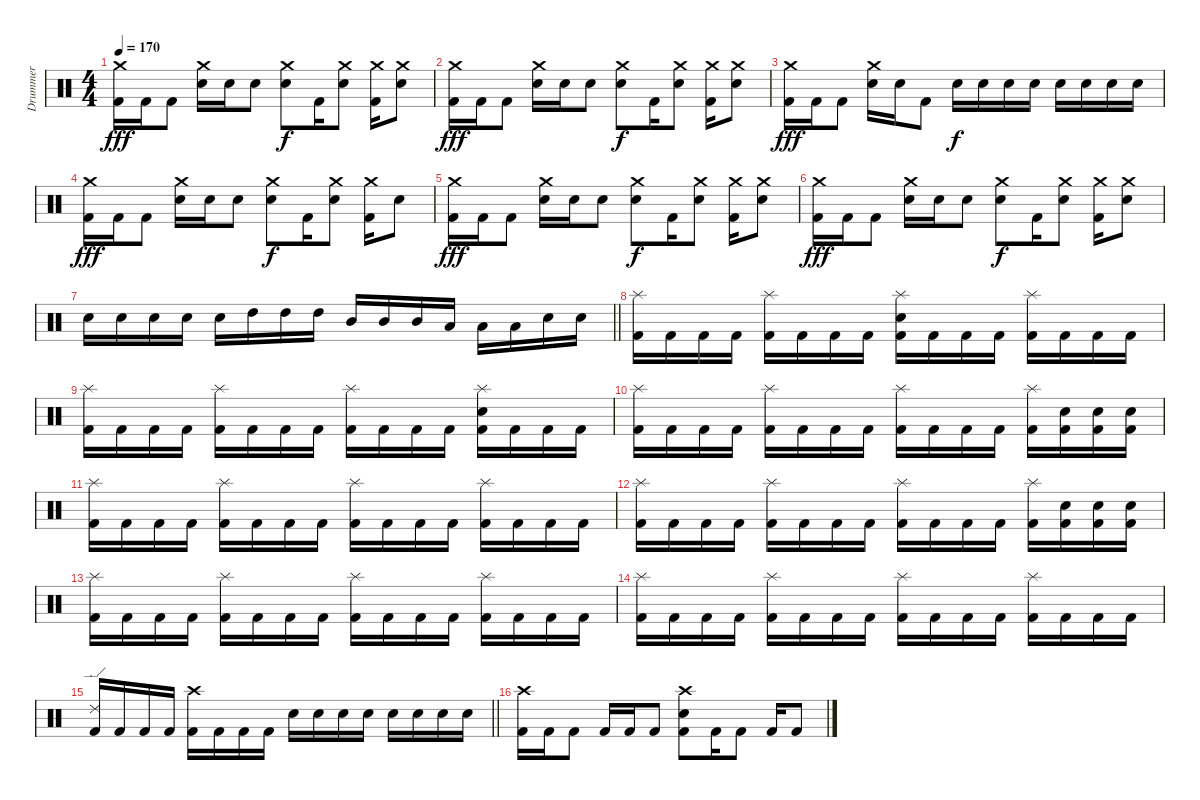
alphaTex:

\track ("Drummer" "Drummer") {instrument percussion}
\staff {score}
\articulation defaults
\ts (4 4)
\tempo 170
\clef neutral
\ks c
("Crash medium (hit)" "Kick (hit) 2").16{dy fff} "Kick (hit) 2".16 "Kick (hit) 2".8 ("Crash medium (hit)" "Electric Snare (hit)").16 "Electric Snare (hit)".16 "Electric Snare (hit)".8 ("Crash medium (hit)" "Electric Snare (hit)").8{dy f} "Kick (hit) 2".16 ("Crash medium (hit)" "Electric Snare (hit)").8 ("Crash medium (hit)" "Kick (hit) 2").16 ("Crash medium (hit)" "Electric Snare (hit)").8 |
("Crash medium (hit)" "Kick (hit) 2").16{dy fff} "Kick (hit) 2".16 "Kick (hit) 2".8 ("Crash medium (hit)" "Electric Snare (hit)").16 "Electric Snare (hit)".16 "Electric Snare (hit)".8 ("Crash medium (hit)" "Electric Snare (hit)").8{dy f} "Kick (hit) 2".16 ("Crash medium (hit)" "Electric Snare (hit)").8 ("Crash medium (hit)" "Kick (hit) 2").16 ("Crash medium (hit)" "Electric Snare (hit)").8 |
("Crash medium (hit)" "Kick (hit) 2").16{dy fff} "Kick (hit) 2".16 "Kick (hit) 2".8 ("Crash medium (hit)" "Electric Snare (hit)").16 "Electric Snare (hit)".16 "Kick (hit) 2".8 "Electric Snare (hit)".16{dy f} "Electric Snare (hit)".16 "Electric Snare (hit)".16 "Electric Snare (hit)".16 "Electric Snare (hit)".16 "Electric Snare (hit)".16 "Electric Snare (hit)".16 "Electric Snare (hit)".16 |
("Crash medium (hit)" "Kick (hit) 2").16{dy fff} "Kick (hit) 2".16 "Kick (hit) 2".8 ("Crash medium (hit)" "Electric Snare (hit)").16 "Electric Snare (hit)".16 "Electric Snare (hit)".8 ("Crash medium (hit)" "Electric Snare (hit)").8{dy f} "Kick (hit) 2".16 ("Crash medium (hit)" "Electric Snare (hit)").8 ("Crash medium (hit)" "Kick (hit) 2").16 "Electric Snare (hit)".8 |
("Crash medium (hit)" "Kick (hit) 2").16{dy fff} "Kick (hit) 2".16 "Kick (hit) 2".8 ("Crash medium (hit)" "Electric Snare (hit)").16 "Electric Snare (hit)".16 "Electric Snare (hit)".8 ("Crash medium (hit)" "Electric Snare (hit)").8{dy f} "Kick (hit) 2".16 ("Crash medium (hit)" "Electric Snare (hit)").8 ("Crash medium (hit)" "Kick (hit) 2").16 ("Crash medium (hit)" "Electric Snare (hit)").8 |
("Crash medium (hit)" "Kick (hit) 2").16{dy fff} "Kick (hit) 2".16 "Kick (hit) 2".8 ("Crash medium (hit)" "Electric Snare (hit)").16 "Electric Snare (hit)".16 "Electric Snare (hit)".8 ("Crash medium (hit)" "Electric Snare (hit)").8{dy f} "Kick (hit) 2".16 ("Crash medium (hit)" "Electric Snare (hit)").8 ("Crash medium (hit)" "Kick (hit) 2").16 ("Crash medium (hit)" "Electric Snare (hit)").8 |
\barLineRight lightlight "Electric Snare (hit)".16 "Electric Snare (hit)".16 "Electric Snare (hit)".16 "Electric Snare (hit)".16 "Electric Snare (hit)".16 "High Tom (hit)".16 "High Tom (hit)".16 "High Tom (hit)".16 "Mid Tom (hit)".16 "Mid Tom (hit)".16 "Mid Tom (hit)".16 "Low Tom (hit)".16 "Low Tom (hit)".16 "Low Tom (hit)".16 "Electric Snare (hit)".16 "Electric Snare (hit)".16
|
("Splash (hit)" "Kick (hit) 2").16 "Kick (hit) 2".16 "Kick (hit) 2".16 "Kick (hit) 2".16 ("Splash (hit)" "Kick (hit) 2").16 "Kick (hit) 2".16 "Kick (hit) 2".16 "Kick (hit) 2".16 ("Splash (hit)" "Electric Snare (hit)" "Kick (hit) 2").16 "Kick (hit) 2".16 "Kick (hit) 2".16 "Kick (hit) 2".16 ("Splash (hit)" "Kick (hit) 2").16 "Kick (hit) 2".16 "Kick (hit) 2".16 "Kick (hit) 2".16 |
("Splash (hit)" "Kick (hit) 2").16 "Kick (hit) 2".16 "Kick (hit) 2".16 "Kick (hit) 2".16 ("Splash (hit)" "Kick (hit) 2").16 "Kick (hit) 2".16 "Kick (hit) 2".16 "Kick (hit) 2".16 ("Splash (hit)" "Kick (hit) 2").16 "Kick (hit) 2".16 "Kick (hit) 2".16 "Kick (hit) 2".16 ("Splash (hit)" "Electric Snare (hit)" "Kick (hit) 2").16 "Kick (hit) 2".16 "Kick (hit) 2".16 "Kick (hit) 2".16 |
("Splash (hit)" "Kick (hit) 2").16 "Kick (hit) 2".16 "Kick (hit) 2".16 "Kick (hit) 2".16 ("Splash (hit)" "Kick (hit) 2").16 "Kick (hit) 2".16 "Kick (hit) 2".16 "Kick (hit) 2".16 ("Splash (hit)" "Kick (hit) 2").16 "Kick (hit) 2".16 "Kick (hit) 2".16 "Kick (hit) 2".16 ("Splash (hit)" "Kick (hit) 2").16 ("Electric Snare (hit)" "Kick (hit) 2").16 ("Electric Snare (hit)" "Kick (hit) 2").16 ("Electric Snare (hit)" "Kick (hit) 2").16 |
("Splash (hit)" "Kick (hit) 2").16 "Kick (hit) 2".16 "Kick (hit) 2".16 "Kick (hit) 2".16 ("Splash (hit)" "Kick (hit) 2").16 "Kick (hit) 2".16 "Kick (hit) 2".16 "Kick (hit) 2".16 ("Splash (hit)" "Kick (hit) 2").16 "Kick (hit) 2".16 "Kick (hit) 2".16 "Kick (hit) 2".16 ("Splash (hit)" "Kick (hit) 2").16 "Kick (hit) 2".16 "Kick (hit) 2".16 "Kick (hit) 2".16 |
("Splash (hit)" "Kick (hit) 2").16 "Kick (hit) 2".16 "Kick (hit) 2".16 "Kick (hit) 2".16 ("Splash (hit)" "Kick (hit) 2").16 "Kick (hit) 2".16 "Kick (hit) 2".16 "Kick (hit) 2".16 ("Splash (hit)" "Kick (hit) 2").16 "Kick (hit) 2".16 "Kick (hit) 2".16 "Kick (hit) 2".16 ("Splash (hit)" "Kick (hit) 2").16 ("Electric Snare (hit)" "Kick (hit) 2").16 ("Electric Snare (hit)" "Kick (hit) 2").16 ("Electric Snare (hit)" "Kick (hit) 2").16 |
("Splash (hit)" "Kick (hit) 2").16 "Kick (hit) 2".16 "Kick (hit) 2".16 "Kick (hit) 2".16 ("Splash (hit)" "Kick (hit) 2").16 "Kick (hit) 2".16 "Kick (hit) 2".16 "Kick (hit) 2".16 ("Splash (hit)" "Kick (hit) 2").16 "Kick (hit) 2".16 "Kick (hit) 2".16 "Kick (hit) 2".16 ("Splash (hit)" "Kick (hit) 2").16 "Kick (hit) 2".16 "Kick (hit) 2".16 "Kick (hit) 2".16 |
("Splash (hit)" "Kick (hit) 2").16 "Kick (hit) 2".16 "Kick (hit) 2".16 "Kick (hit) 2".16 ("Splash (hit)" "Kick (hit) 2").16 "Kick (hit) 2".16 "Kick (hit) 2".16 "Kick (hit) 2".16 ("Splash (hit)" "Kick (hit) 2").16 "Kick (hit) 2".16 "Kick (hit) 2".16 "Kick (hit) 2".16 ("Splash (hit)" "Kick (hit) 2").16 "Kick (hit) 2".16 "Kick (hit) 2".16 "Kick (hit) 2".16 |
\barLineRight lightlight
("Ride (edge) 2" "Kick (hit) 2").16 "Kick (hit) 2".16 "Kick (hit) 2".16 "Kick (hit) 2".16 ("Crash high (hit)" "Kick (hit) 2").16 "Kick (hit) 2".16 "Kick (hit) 2".16 "Kick (hit) 2".16 "Electric Snare (hit)".16 "Electric Snare (hit)".16 "Electric Snare (hit)".16 "Electric Snare (hit)".16 "Electric Snare (hit)".16 "Electric Snare (hit)".16 "Electric Snare (hit)".16 "Electric Snare (hit)".16 |
("Crash high (hit)" "Kick (hit) 2").16 "Kick (hit) 2".16 "Kick (hit) 2".8 "Kick (hit) 2".16 "Kick (hit) 2".16 "Kick (hit) 2".8 ("Crash high (hit)" "Electric Snare (hit)" "Kick (hit) 2").8 "Kick (hit) 2".16 "Kick (hit) 2".8 "Kick (hit) 2".16 "Kick (hit) 2".8
